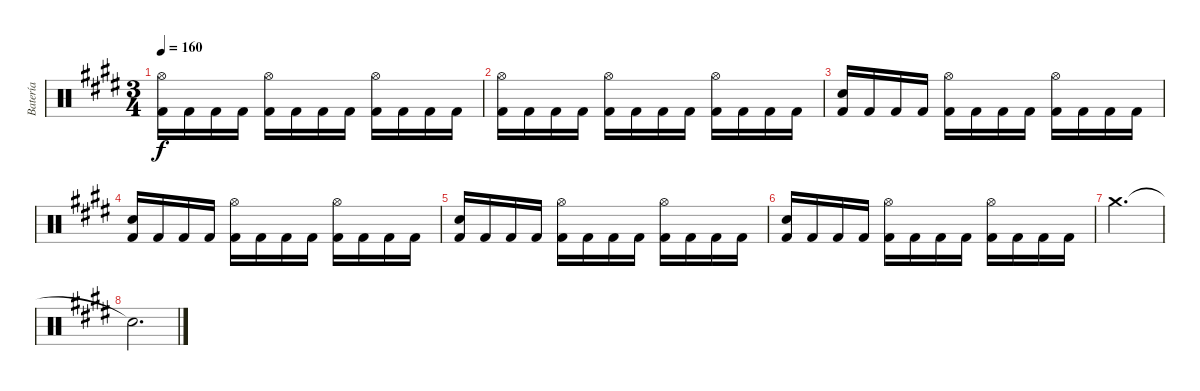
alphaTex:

\track ("Batería" "Batería") {instrument percussion}
\staff {score}
\articulation defaults
\ts (3 4)
\tempo 160
\clef neutral
\ks c#minor
("Hi-Hat (open)" "Kick (hit) 2").16{dy f} "Kick (hit) 2".16 "Kick (hit) 2".16 "Kick (hit) 2".16 ("Hi-Hat (open)" "Kick (hit) 2").16 "Kick (hit) 2".16 "Kick (hit) 2".16 "Kick (hit) 2".16 ("Hi-Hat (open)" "Kick (hit) 2").16 "Kick (hit) 2".16 "Kick (hit) 2".16 "Kick (hit) 2".16 |
("Hi-Hat (open)" "Kick (hit) 2").16 "Kick (hit) 2".16 "Kick (hit) 2".16 "Kick (hit) 2".16 ("Hi-Hat (open)" "Kick (hit) 2").16 "Kick (hit) 2".16 "Kick (hit) 2".16 "Kick (hit) 2".16 ("Hi-Hat (open)" "Kick (hit) 2").16 "Kick (hit) 2".16 "Kick (hit) 2".16 "Kick (hit) 2".16 |
("Snare (hit) 2" "Kick (hit) 2").16 "Kick (hit) 2".16 "Kick (hit) 2".16 "Kick (hit) 2".16 ("Hi-Hat (open)" "Kick (hit) 2").16 "Kick (hit) 2".16 "Kick (hit) 2".16 "Kick (hit) 2".16 ("Hi-Hat (open)" "Kick (hit) 2").16 "Kick (hit) 2".16 "Kick (hit) 2".16 "Kick (hit) 2".16 |
("Snare (hit) 2" "Kick (hit) 2").16 "Kick (hit) 2".16 "Kick (hit) 2".16 "Kick (hit) 2".16 ("Hi-Hat (open)" "Kick (hit) 2").16 "Kick (hit) 2".16 "Kick (hit) 2".16 "Kick (hit) 2".16 ("Hi-Hat (open)" "Kick (hit) 2").16 "Kick (hit) 2".16 "Kick (hit) 2".16 "Kick (hit) 2".16 |
("Snare (hit) 2" "Kick (hit) 2").16 "Kick (hit) 2".16 "Kick (hit) 2".16 "Kick (hit) 2".16 ("Hi-Hat (open)" "Kick (hit) 2").16 "Kick (hit) 2".16 "Kick (hit) 2".16 "Kick (hit) 2".16 ("Hi-Hat (open)" "Kick (hit) 2").16 "Kick (hit) 2".16 "Kick (hit) 2".16 "Kick (hit) 2".16 |
("Snare (hit) 2" "Kick (hit) 2").16 "Kick (hit) 2".16 "Kick (hit) 2".16 "Kick (hit) 2".16 ("Hi-Hat (open)" "Kick (hit) 2").16 "Kick (hit) 2".16 "Kick (hit) 2".16 "Kick (hit) 2".16 ("Hi-Hat (open)" "Kick (hit) 2").16 "Kick (hit) 2".16 "Kick (hit) 2".16 "Kick (hit) 2".16 |
"Crash medium (hit)".2{d} |
"Snare (hit)"{t}.2{d}
